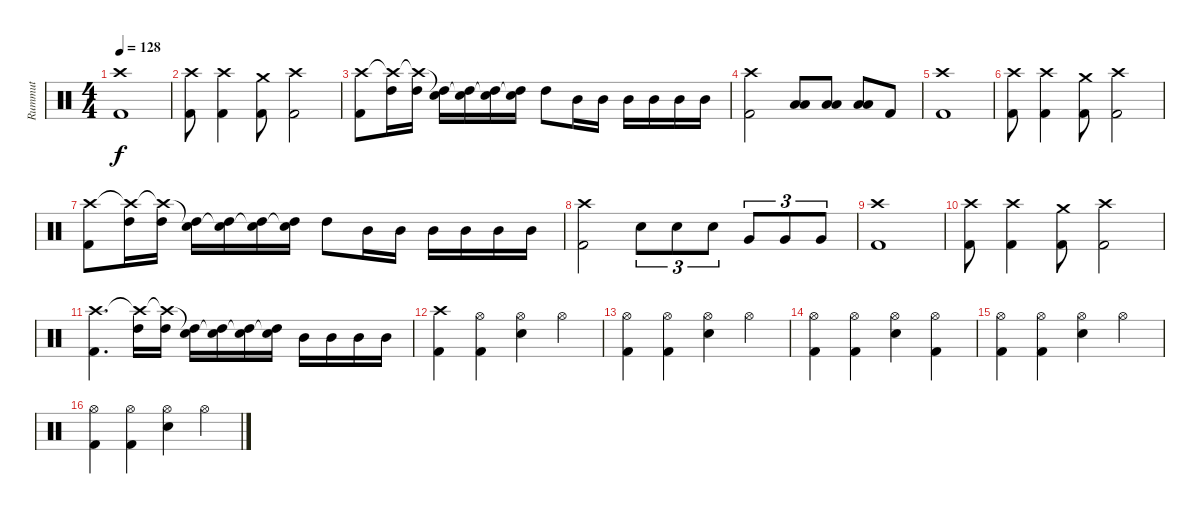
\track ("Rummut" "Rummut") {instrument percussion}
\staff {score}
\articulation defaults
\ts (4 4)
\tempo 128
\clef neutral
\ks aminor
("Crash high (hit)" "Kick (hit) 2").1{dy f} |
("Crash high (hit)" "Kick (hit) 2").8 ("Crash high (hit)" "Kick (hit) 2").4 ("Crash medium (hit)" "Kick (hit) 2").8 ("Crash high (hit)" "Kick (hit) 2").2 |
("Crash high (hit)" "Kick (hit) 2").8 ("Crash high (hit)"{t} "High Tom (hit)").16 ("Crash high (hit)"{t} "High Tom (hit)").16 ("Snare (hit)"{t} "High Tom (hit)").16 ("Snare (hit)"{t} "High Tom (hit)").16 ("Snare (hit)"{t} "High Tom (hit)").16 ("Snare (hit)"{t} "High Tom (hit)").16 "High Tom (hit)".8 "Mid Tom (hit)".16 "Mid Tom (hit)".16 "Mid Tom (hit)".16 "Mid Tom (hit)".16 "Mid Tom (hit)".16 "Mid Tom (hit)".16 |
("Crash high (hit)" "Kick (hit) 2").2 ("Low Floor Tom (hit)" "Low Tom (hit)").8 ("Low Floor Tom (hit)" "Low Tom (hit)").8 ("Low Floor Tom (hit)" "Low Tom (hit)").8 "Kick (hit) 2".8 |
("Crash high (hit)" "Kick (hit) 2").1 |
("Crash high (hit)" "Kick (hit) 2").8 ("Crash high (hit)" "Kick (hit) 2").4 ("Crash medium (hit)" "Kick (hit) 2").8 ("Crash high (hit)" "Kick (hit) 2").2 |
("Crash high (hit)" "Kick (hit) 2").8 ("Crash high (hit)"{t} "High Tom (hit)").16 ("Crash high (hit)"{t} "High Tom (hit)").16 ("Snare (hit)"{t} "High Tom (hit)").16 ("Snare (hit)"{t} "High Tom (hit)").16 ("Snare (hit)"{t} "High Tom (hit)").16 ("Snare (hit)"{t} "High Tom (hit)").16 "High Tom (hit)".8 "Mid Tom (hit)".16 "Mid Tom (hit)".16 "Mid Tom (hit)".16 "Mid Tom (hit)".16 "Mid Tom (hit)".16 "Mid Tom (hit)".16 |
("Crash high (hit)" "Kick (hit) 2").2 "Electric Snare (hit)".8{tu (3 2)} "Electric Snare (hit)".8{tu (3 2)} "Electric Snare (hit)".8{tu (3 2)} "Very Low Tom (hit)".8{tu (3 2)} "Very Low Tom (hit)".8{tu (3 2)} "Very Low Tom (hit)".8{tu (3 2)} |
("Crash high (hit)" "Kick (hit) 2").1 |
("Crash high (hit)" "Kick (hit) 2").8 ("Crash high (hit)" "Kick (hit) 2").4 ("Crash medium (hit)" "Kick (hit) 2").8 ("Crash high (hit)" "Kick (hit) 2").2 |
("Crash high (hit)" "Kick (hit) 2").4{d} ("Crash high (hit)"{t} "High Tom (hit)").16 ("Crash high (hit)"{t} "High Tom (hit)").16 ("Snare (hit)"{t} "High Tom (hit)").16 ("Snare (hit)"{t} "High Tom (hit)").16 ("Snare (hit)"{t} "High Tom (hit)").16 ("Snare (hit)"{t} "High Tom (hit)").16 "Mid Tom (hit)".16 "Mid Tom (hit)".16 "Mid Tom (hit)".16 "Mid Tom (hit)".16 |
("Crash high (hit)" "Kick (hit) 2").4 ("Hi-Hat (open)" "Kick (hit) 2").4 ("Hi-Hat (open)" "Electric Snare (hit)").4 "Hi-Hat (open)".4 |
("Hi-Hat (open)" "Kick (hit) 2").4 ("Hi-Hat (open)" "Kick (hit) 2").4 ("Hi-Hat (open)" "Electric Snare (hit)").4 "Hi-Hat (open)".4 |
("Hi-Hat (open)" "Kick (hit) 2").4 ("Hi-Hat (open)" "Kick (hit) 2").4 ("Hi-Hat (open)" "Electric Snare (hit)").4 ("Hi-Hat (open)" "Kick (hit) 2").4 |
("Hi-Hat (open)" "Kick (hit) 2").4 ("Hi-Hat (open)" "Kick (hit) 2").4 ("Hi-Hat (open)" "Electric Snare (hit)").4 "Hi-Hat (open)".4 |
("Hi-Hat (open)" "Kick (hit) 2").4 ("Hi-Hat (open)" "Kick (hit) 2").4 ("Hi-Hat (open)" "Electric Snare (hit)").4 "Hi-Hat (open)".4
